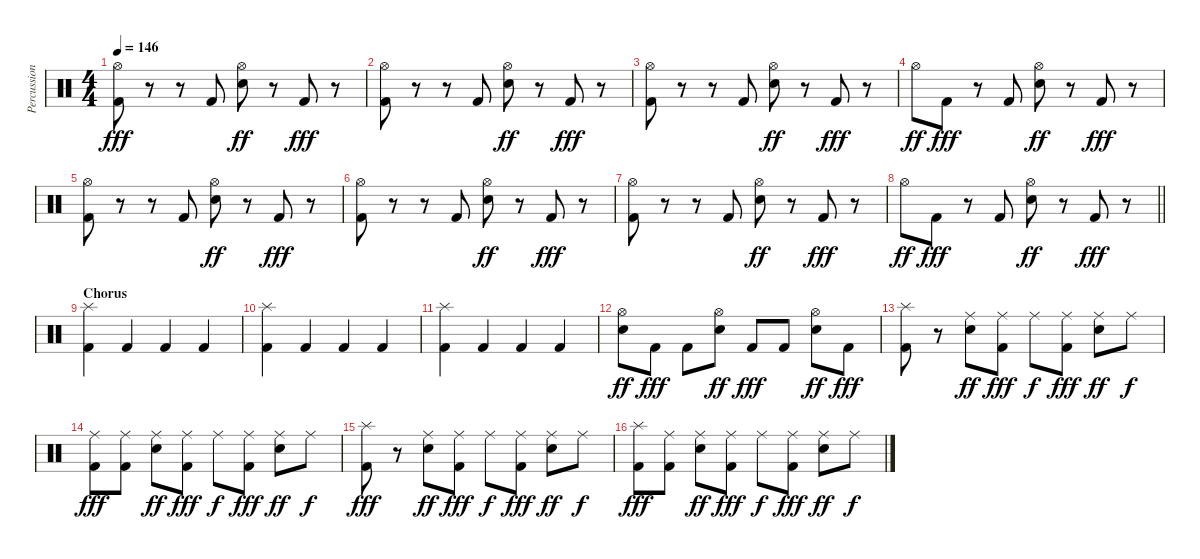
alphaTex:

\track ("Percussions" "Percussion") {instrument percussion}
\staff {score}
\articulation defaults
\ts (4 4)
\tempo 146
\clef neutral
\ks c
("Hi-Hat (open)" "Kick (hit) 2").8{dy fff} r.8 r.8 "Kick (hit) 2".8 ("Hi-Hat (open)" "Snare (hit) 2").8{dy ff} r.8 "Kick (hit) 2".8{dy fff} r.8 |
("Hi-Hat (open)" "Kick (hit) 2").8 r.8 r.8 "Kick (hit) 2".8 ("Hi-Hat (open)" "Snare (hit) 2").8{dy ff} r.8 "Kick (hit) 2".8{dy fff} r.8 |
("Hi-Hat (open)" "Kick (hit) 2").8 r.8 r.8 "Kick (hit) 2".8 ("Hi-Hat (open)" "Snare (hit) 2").8{dy ff} r.8 "Kick (hit) 2".8{dy fff} r.8 |
"Hi-Hat (open)".8{dy ff} "Kick (hit) 2".8{dy fff} r.8 "Kick (hit) 2".8 ("Hi-Hat (open)" "Snare (hit) 2").8{dy ff} r.8 "Kick (hit) 2".8{dy fff} r.8 |
("Hi-Hat (open)" "Kick (hit) 2").8 r.8 r.8 "Kick (hit) 2".8 ("Hi-Hat (open)" "Snare (hit) 2").8{dy ff} r.8 "Kick (hit) 2".8{dy fff} r.8 |
("Hi-Hat (open)" "Kick (hit) 2").8 r.8 r.8 "Kick (hit) 2".8 ("Hi-Hat (open)" "Snare (hit) 2").8{dy ff} r.8 "Kick (hit) 2".8{dy fff} r.8 |
("Hi-Hat (open)" "Kick (hit) 2").8 r.8 r.8 "Kick (hit) 2".8 ("Hi-Hat (open)" "Snare (hit) 2").8{dy ff} r.8 "Kick (hit) 2".8{dy fff} r.8 |
\barLineRight lightlight "Hi-Hat (open)".8{dy ff} "Kick (hit) 2".8{dy fff}
r.8 "Kick (hit) 2".8 ("Hi-Hat (open)" "Snare (hit) 2").8{dy ff} r.8 "Kick (hit) 2".8{dy fff} r.8 |
\section ("" "Chorus")
("Splash (hit)" "Kick (hit) 2").4 "Kick (hit) 2".4 "Kick (hit) 2".4 "Kick (hit) 2".4 |
("Splash (hit)" "Kick (hit) 2").4 "Kick (hit) 2".4 "Kick (hit) 2".4 "Kick (hit) 2".4 |
("Splash (hit)" "Kick (hit) 2").4 "Kick (hit) 2".4 "Kick (hit) 2".4 "Kick (hit) 2".4 |
("Hi-Hat (open)" "Snare (hit) 2").8{dy ff} "Kick (hit) 2".8{dy fff} "Kick (hit) 2".8 ("Hi-Hat (open)" "Snare (hit) 2").8{dy ff} "Kick (hit) 2".8{dy fff} "Kick (hit) 2".8 ("Hi-Hat (open)" "Snare (hit) 2").8{dy ff} "Kick (hit) 2".8{dy fff} |
("Splash (hit)" "Kick (hit) 2").8 r.8 ("Ride (middle)" "Snare (hit) 2").8{dy ff} ("Ride (middle)" "Kick (hit) 2").8{dy fff} "Ride (middle)".8{dy f} ("Ride (middle)" "Kick (hit) 2").8{dy fff} ("Ride (middle)" "Snare (hit) 2").8{dy ff} "Ride (middle)".8{dy f} |
("Ride (middle)" "Kick (hit) 2").8{dy fff} ("Ride (middle)" "Kick (hit) 2").8 ("Ride (middle)" "Snare (hit) 2").8{dy ff} ("Ride (middle)" "Kick (hit) 2").8{dy fff} "Ride (middle)".8{dy f} ("Ride (middle)" "Kick (hit) 2").8{dy fff} ("Ride (middle)" "Snare (hit) 2").8{dy ff} "Ride (middle)".8{dy f} |
("Splash (hit)" "Kick (hit) 2").8{dy fff} r.8 ("Ride (middle)" "Snare (hit) 2").8{dy ff} ("Ride (middle)" "Kick (hit) 2").8{dy fff} "Ride (middle)".8{dy f} ("Ride (middle)" "Kick (hit) 2").8{dy fff} ("Ride (middle)" "Snare (hit) 2").8{dy ff} "Ride (middle)".8{dy f} |
("Splash (hit)" "Kick (hit) 2").8{dy fff} ("Ride (middle)" "Kick (hit) 2").8 ("Ride (middle)" "Snare (hit) 2").8{dy ff} ("Ride (middle)" "Kick (hit) 2").8{dy fff} "Ride (middle)".8{dy f} ("Ride (middle)" "Kick (hit) 2").8{dy fff} ("Ride (middle)" "Snare (hit) 2").8{dy ff} "Ride (middle)".8{dy f}
